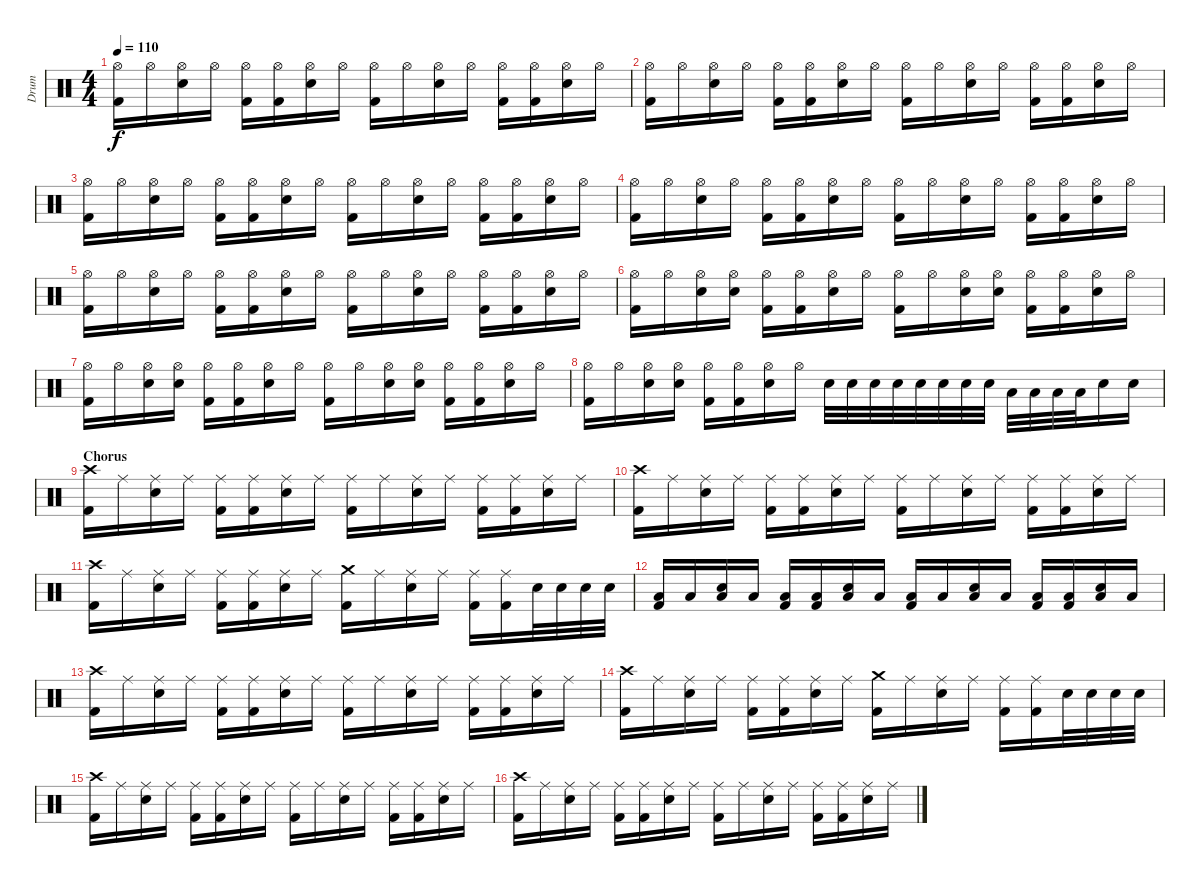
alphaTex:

\track ("Drum" "Drum") {instrument percussion}
\staff {score}
\articulation defaults
\ts (4 4)
\tempo 110
\clef neutral
\ks c
("Hi-Hat (open)" "Kick (hit) 2").16{dy f} "Hi-Hat (open)".16 ("Hi-Hat (open)" "Electric Snare (hit)").16 "Hi-Hat (open)".16 ("Hi-Hat (open)" "Kick (hit) 2").16 ("Hi-Hat (open)" "Kick (hit) 2").16 ("Hi-Hat (open)" "Electric Snare (hit)").16 "Hi-Hat (open)".16 ("Hi-Hat (open)" "Kick (hit) 2").16 "Hi-Hat (open)".16 ("Hi-Hat (open)" "Electric Snare (hit)").16 "Hi-Hat (open)".16 ("Hi-Hat (open)" "Kick (hit) 2").16 ("Hi-Hat (open)" "Kick (hit) 2").16 ("Hi-Hat (open)" "Electric Snare (hit)").16 "Hi-Hat (open)".16 |
("Hi-Hat (open)" "Kick (hit) 2").16 "Hi-Hat (open)".16 ("Hi-Hat (open)" "Electric Snare (hit)").16 "Hi-Hat (open)".16 ("Hi-Hat (open)" "Kick (hit) 2").16 ("Hi-Hat (open)" "Kick (hit) 2").16 ("Hi-Hat (open)" "Electric Snare (hit)").16 "Hi-Hat (open)".16 ("Hi-Hat (open)" "Kick (hit) 2").16 "Hi-Hat (open)".16 ("Hi-Hat (open)" "Electric Snare (hit)").16 "Hi-Hat (open)".16 ("Hi-Hat (open)" "Kick (hit) 2").16 ("Hi-Hat (open)" "Kick (hit) 2").16 ("Hi-Hat (open)" "Electric Snare (hit)").16 "Hi-Hat (open)".16 |
("Hi-Hat (open)" "Kick (hit) 2").16 "Hi-Hat (open)".16 ("Hi-Hat (open)" "Electric Snare (hit)").16 "Hi-Hat (open)".16 ("Hi-Hat (open)" "Kick (hit) 2").16 ("Hi-Hat (open)" "Kick (hit) 2").16 ("Hi-Hat (open)" "Electric Snare (hit)").16 "Hi-Hat (open)".16 ("Hi-Hat (open)" "Kick (hit) 2").16 "Hi-Hat (open)".16 ("Hi-Hat (open)" "Electric Snare (hit)").16 "Hi-Hat (open)".16 ("Hi-Hat (open)" "Kick (hit) 2").16 ("Hi-Hat (open)" "Kick (hit) 2").16 ("Hi-Hat (open)" "Electric Snare (hit)").16 "Hi-Hat (open)".16 |
("Hi-Hat (open)" "Kick (hit) 2").16 "Hi-Hat (open)".16 ("Hi-Hat (open)" "Electric Snare (hit)").16 "Hi-Hat (open)".16 ("Hi-Hat (open)" "Kick (hit) 2").16 ("Hi-Hat (open)" "Kick (hit) 2").16 ("Hi-Hat (open)" "Electric Snare (hit)").16 "Hi-Hat (open)".16 ("Hi-Hat (open)" "Kick (hit) 2").16 "Hi-Hat (open)".16 ("Hi-Hat (open)" "Electric Snare (hit)").16 "Hi-Hat (open)".16 ("Hi-Hat (open)" "Kick (hit) 2").16 ("Hi-Hat (open)" "Kick (hit) 2").16 ("Hi-Hat (open)" "Electric Snare (hit)").16 "Hi-Hat (open)".16 |
("Hi-Hat (open)" "Kick (hit) 2").16 "Hi-Hat (open)".16 ("Hi-Hat (open)" "Electric Snare (hit)").16 "Hi-Hat (open)".16 ("Hi-Hat (open)" "Kick (hit) 2").16 ("Hi-Hat (open)" "Kick (hit) 2").16 ("Hi-Hat (open)" "Electric Snare (hit)").16 "Hi-Hat (open)".16 ("Hi-Hat (open)" "Kick (hit) 2").16 "Hi-Hat (open)".16 ("Hi-Hat (open)" "Electric Snare (hit)").16 "Hi-Hat (open)".16 ("Hi-Hat (open)" "Kick (hit) 2").16 ("Hi-Hat (open)" "Kick (hit) 2").16 ("Hi-Hat (open)" "Electric Snare (hit)").16 "Hi-Hat (open)".16 |
("Hi-Hat (open)" "Kick (hit) 2").16 "Hi-Hat (open)".16 ("Hi-Hat (open)" "Electric Snare (hit)").16 ("Hi-Hat (open)" "Electric Snare (hit)").16 ("Hi-Hat (open)" "Kick (hit) 2").16 ("Hi-Hat (open)" "Kick (hit) 2").16 ("Hi-Hat (open)" "Electric Snare (hit)").16 "Hi-Hat (open)".16 ("Hi-Hat (open)" "Kick (hit) 2").16 "Hi-Hat (open)".16 ("Hi-Hat (open)" "Electric Snare (hit)").16 ("Hi-Hat (open)" "Electric Snare (hit)").16 ("Hi-Hat (open)" "Kick (hit) 2").16 ("Hi-Hat (open)" "Kick (hit) 2").16 ("Hi-Hat (open)" "Electric Snare (hit)").16 "Hi-Hat (open)".16 |
("Hi-Hat (open)" "Kick (hit) 2").16 "Hi-Hat (open)".16 ("Hi-Hat (open)" "Electric Snare (hit)").16 ("Hi-Hat (open)" "Electric Snare (hit)").16 ("Hi-Hat (open)" "Kick (hit) 2").16 ("Hi-Hat (open)" "Kick (hit) 2").16 ("Hi-Hat (open)" "Electric Snare (hit)").16 "Hi-Hat (open)".16 ("Hi-Hat (open)" "Kick (hit) 2").16 "Hi-Hat (open)".16 ("Hi-Hat (open)" "Electric Snare (hit)").16 ("Hi-Hat (open)" "Electric Snare (hit)").16 ("Hi-Hat (open)" "Kick (hit) 2").16 ("Hi-Hat (open)" "Kick (hit) 2").16 ("Hi-Hat (open)" "Electric Snare (hit)").16 "Hi-Hat (open)".16 |
("Hi-Hat (open)" "Kick (hit) 2").16 "Hi-Hat (open)".16 ("Hi-Hat (open)" "Electric Snare (hit)").16 ("Hi-Hat (open)" "Electric Snare (hit)").16 ("Hi-Hat (open)" "Kick (hit) 2").16 ("Hi-Hat (open)" "Kick (hit) 2").16 ("Hi-Hat (open)" "Electric Snare (hit)").16 "Hi-Hat (open)".16 "Electric Snare (hit)".32 "Electric Snare (hit)".32 "Electric Snare (hit)".32 "Electric Snare (hit)".32 "Electric Snare (hit)".32 "Electric Snare (hit)".32 "Electric Snare (hit)".32 "Electric Snare (hit)".32 "Low Tom (hit)".32 "Low Tom (hit)".32 "Low Tom (hit)".32 "Low Tom (hit)".32 "Electric Snare (hit)".16 "Electric Snare (hit)".16 |
\section ("" "Chorus")
("Crash high (hit)" "Kick (hit) 2").16 "Ride (middle)".16 ("Ride (middle)" "Electric Snare (hit)").16 "Ride (middle)".16 ("Ride (middle)" "Kick (hit) 2").16 ("Ride (middle)" "Kick (hit) 2").16 ("Ride (middle)" "Electric Snare (hit)").16 "Ride (middle)".16 ("Ride (middle)" "Kick (hit) 2").16 "Ride (middle)".16 ("Ride (middle)" "Electric Snare (hit)").16 "Ride (middle)".16 ("Ride (middle)" "Kick (hit) 2").16 ("Ride (middle)" "Kick (hit) 2").16 ("Ride (middle)" "Electric Snare (hit)").16 "Ride (middle)".16 |
("Crash high (hit)" "Kick (hit) 2").16 "Ride (middle)".16 ("Ride (middle)" "Electric Snare (hit)").16 "Ride (middle)".16 ("Ride (middle)" "Kick (hit) 2").16 ("Ride (middle)" "Kick (hit) 2").16 ("Ride (middle)" "Electric Snare (hit)").16 "Ride (middle)".16 ("Ride (middle)" "Kick (hit) 2").16 "Ride (middle)".16 ("Ride (middle)" "Electric Snare (hit)").16 "Ride (middle)".16 ("Ride (middle)" "Kick (hit) 2").16 ("Ride (middle)" "Kick (hit) 2").16 ("Ride (middle)" "Electric Snare (hit)").16 "Ride (middle)".16 |
("Crash high (hit)" "Kick (hit) 2").16 "Ride (middle)".16 ("Ride (middle)" "Electric Snare (hit)").16 "Ride (middle)".16 ("Ride (middle)" "Kick (hit) 2").16 ("Ride (middle)" "Kick (hit) 2").16 ("Ride (middle)" "Electric Snare (hit)").16 "Ride (middle)".16 ("Crash medium (hit)" "Kick (hit) 2").16 "Ride (middle)".16 ("Ride (middle)" "Electric Snare (hit)").16 "Ride (middle)".16 ("Ride (middle)" "Kick (hit) 2").16 ("Ride (middle)" "Kick (hit) 2").16 "Electric Snare (hit)".32 "Electric Snare (hit)".32 "Electric Snare (hit)".32 "Electric Snare (hit)".32 |
("Low Floor Tom (hit)" "Kick (hit) 2").16 "Low Floor Tom (hit)".16 ("Low Floor Tom (hit)" "Electric Snare (hit)").16 "Low Floor Tom (hit)".16 ("Low Floor Tom (hit)" "Kick (hit) 2").16 ("Low Floor Tom (hit)" "Kick (hit) 2").16 ("Low Floor Tom (hit)" "Electric Snare (hit)").16 "Low Floor Tom (hit)".16 ("Low Floor Tom (hit)" "Kick (hit) 2").16 "Low Floor Tom (hit)".16 ("Low Floor Tom (hit)" "Electric Snare (hit)").16 "Low Floor Tom (hit)".16 ("Low Floor Tom (hit)" "Kick (hit) 2").16 ("Low Floor Tom (hit)" "Kick (hit) 2").16 ("Low Floor Tom (hit)" "Electric Snare (hit)").16 "Low Floor Tom (hit)".16 |
("Crash high (hit)" "Kick (hit) 2").16 "Ride (middle)".16 ("Ride (middle)" "Electric Snare (hit)").16 "Ride (middle)".16 ("Ride (middle)" "Kick (hit) 2").16 ("Ride (middle)" "Kick (hit) 2").16 ("Ride (middle)" "Electric Snare (hit)").16 "Ride (middle)".16 ("Ride (middle)" "Kick (hit) 2").16 "Ride (middle)".16 ("Ride (middle)" "Electric Snare (hit)").16 "Ride (middle)".16 ("Ride (middle)" "Kick (hit) 2").16 ("Ride (middle)" "Kick (hit) 2").16 ("Ride (middle)" "Electric Snare (hit)").16 "Ride (middle)".16 |
("Crash high (hit)" "Kick (hit) 2").16 "Ride (middle)".16 ("Ride (middle)" "Electric Snare (hit)").16 "Ride (middle)".16 ("Ride (middle)" "Kick (hit) 2").16 ("Ride (middle)" "Kick (hit) 2").16 ("Ride (middle)" "Electric Snare (hit)").16 "Ride (middle)".16 ("Crash medium (hit)" "Kick (hit) 2").16 "Ride (middle)".16 ("Ride (middle)" "Electric Snare (hit)").16 "Ride (middle)".16 ("Ride (middle)" "Kick (hit) 2").16 ("Ride (middle)" "Kick (hit) 2").16 "Electric Snare (hit)".32 "Electric Snare (hit)".32 "Electric Snare (hit)".32 "Electric Snare (hit)".32 |
("Crash high (hit)" "Kick (hit) 2").16 "Ride (middle)".16 ("Ride (middle)" "Electric Snare (hit)").16 "Ride (middle)".16 ("Ride (middle)" "Kick (hit) 2").16 ("Ride (middle)" "Kick (hit) 2").16 ("Ride (middle)" "Electric Snare (hit)").16 "Ride (middle)".16 ("Ride (middle)" "Kick (hit) 2").16 "Ride (middle)".16 ("Ride (middle)" "Electric Snare (hit)").16 "Ride (middle)".16 ("Ride (middle)" "Kick (hit) 2").16 ("Ride (middle)" "Kick (hit) 2").16 ("Ride (middle)" "Electric Snare (hit)").16 "Ride (middle)".16 |
("Crash high (hit)" "Kick (hit) 2").16 "Ride (middle)".16 ("Ride (middle)" "Electric Snare (hit)").16 "Ride (middle)".16 ("Ride (middle)" "Kick (hit) 2").16 ("Ride (middle)" "Kick (hit) 2").16 ("Ride (middle)" "Electric Snare (hit)").16 "Ride (middle)".16 ("Ride (middle)" "Kick (hit) 2").16 "Ride (middle)".16 ("Ride (middle)" "Electric Snare (hit)").16 "Ride (middle)".16 ("Ride (middle)" "Kick (hit) 2").16 ("Ride (middle)" "Kick (hit) 2").16 ("Ride (middle)" "Electric Snare (hit)").16 "Ride (middle)".16
